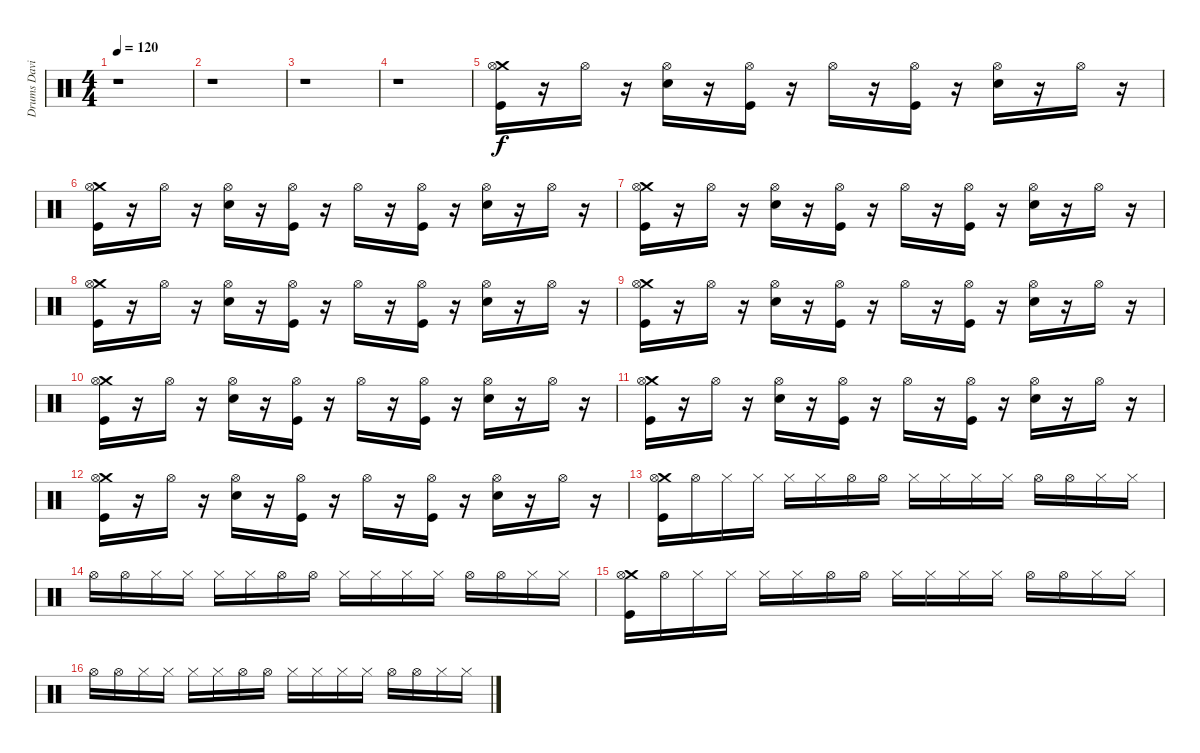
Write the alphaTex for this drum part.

\track ("Drums David" "Drums Davi") {instrument percussion}
\staff {score}
\articulation defaults
\ts (4 4)
\tempo 120
\clef neutral
\ks c
r.1{dy f} |
r.1 |
r.1 |
r.1 |
("Crash medium (hit)" "Hi-Hat (open)" "Kick (hit)").16 r.16 "Hi-Hat (open)".16 r.16 ("Hi-Hat (open)" "Electric Snare (hit)").16 r.16 ("Hi-Hat (open)" "Kick (hit)").16 r.16 "Hi-Hat (open)".16 r.16 ("Hi-Hat (open)" "Kick (hit)").16 r.16 ("Hi-Hat (open)" "Electric Snare (hit)").16 r.16 "Hi-Hat (open)".16 r.16 |
("Crash medium (hit)" "Hi-Hat (open)" "Kick (hit)").16 r.16 "Hi-Hat (open)".16 r.16 ("Hi-Hat (open)" "Electric Snare (hit)").16 r.16 ("Hi-Hat (open)" "Kick (hit)").16 r.16 "Hi-Hat (open)".16 r.16 ("Hi-Hat (open)" "Kick (hit)").16 r.16 ("Hi-Hat (open)" "Electric Snare (hit)").16 r.16 "Hi-Hat (open)".16 r.16 |
("Crash medium (hit)" "Hi-Hat (open)" "Kick (hit)").16 r.16 "Hi-Hat (open)".16 r.16 ("Hi-Hat (open)" "Electric Snare (hit)").16 r.16 ("Hi-Hat (open)" "Kick (hit)").16 r.16 "Hi-Hat (open)".16 r.16 ("Hi-Hat (open)" "Kick (hit)").16 r.16 ("Hi-Hat (open)" "Electric Snare (hit)").16 r.16 "Hi-Hat (open)".16 r.16 |
("Crash medium (hit)" "Hi-Hat (open)" "Kick (hit)").16 r.16 "Hi-Hat (open)".16 r.16 ("Hi-Hat (open)" "Electric Snare (hit)").16 r.16 ("Hi-Hat (open)" "Kick (hit)").16 r.16 "Hi-Hat (open)".16 r.16 ("Hi-Hat (open)" "Kick (hit)").16 r.16 ("Hi-Hat (open)" "Electric Snare (hit)").16 r.16 "Hi-Hat (open)".16 r.16 |
("Crash medium (hit)" "Hi-Hat (open)" "Kick (hit)").16 r.16 "Hi-Hat (open)".16 r.16 ("Hi-Hat (open)" "Electric Snare (hit)").16 r.16 ("Hi-Hat (open)" "Kick (hit)").16 r.16 "Hi-Hat (open)".16 r.16 ("Hi-Hat (open)" "Kick (hit)").16 r.16 ("Hi-Hat (open)" "Electric Snare (hit)").16 r.16 "Hi-Hat (open)".16 r.16 |
("Crash medium (hit)" "Hi-Hat (open)" "Kick (hit)").16 r.16 "Hi-Hat (open)".16 r.16 ("Hi-Hat (open)" "Electric Snare (hit)").16 r.16 ("Hi-Hat (open)" "Kick (hit)").16 r.16 "Hi-Hat (open)".16 r.16 ("Hi-Hat (open)" "Kick (hit)").16 r.16 ("Hi-Hat (open)" "Electric Snare (hit)").16 r.16 "Hi-Hat (open)".16 r.16 |
("Crash medium (hit)" "Hi-Hat (open)" "Kick (hit)").16 r.16 "Hi-Hat (open)".16 r.16 ("Hi-Hat (open)" "Electric Snare (hit)").16 r.16 ("Hi-Hat (open)" "Kick (hit)").16 r.16 "Hi-Hat (open)".16 r.16 ("Hi-Hat (open)" "Kick (hit)").16 r.16 ("Hi-Hat (open)" "Electric Snare (hit)").16 r.16 "Hi-Hat (open)".16 r.16 |
("Crash medium (hit)" "Hi-Hat (open)" "Kick (hit)").16 r.16 "Hi-Hat (open)".16 r.16 ("Hi-Hat (open)" "Electric Snare (hit)").16 r.16 ("Hi-Hat (open)" "Kick (hit)").16 r.16 "Hi-Hat (open)".16 r.16 ("Hi-Hat (open)" "Kick (hit)").16 r.16 ("Hi-Hat (open)" "Electric Snare (hit)").16 r.16 "Hi-Hat (open)".16 r.16 |
("Crash medium (hit)" "Hi-Hat (open)" "Kick (hit)").16 "Hi-Hat (open)".16 "Hi-Hat (closed)".16 "Hi-Hat (closed)".16 "Hi-Hat (closed)".16 "Hi-Hat (closed)".16 "Hi-Hat (open)".16 "Hi-Hat (open)".16 "Hi-Hat (closed)".16 "Hi-Hat (closed)".16 "Hi-Hat (closed)".16 "Hi-Hat (closed)".16 "Hi-Hat (open)".16 "Hi-Hat (open)".16 "Hi-Hat (closed)".16 "Hi-Hat (closed)".16 |
"Hi-Hat (open)".16 "Hi-Hat (open)".16 "Hi-Hat (closed)".16 "Hi-Hat (closed)".16 "Hi-Hat (closed)".16 "Hi-Hat (closed)".16 "Hi-Hat (open)".16 "Hi-Hat (open)".16 "Hi-Hat (closed)".16 "Hi-Hat (closed)".16 "Hi-Hat (closed)".16 "Hi-Hat (closed)".16 "Hi-Hat (open)".16 "Hi-Hat (open)".16 "Hi-Hat (closed)".16 "Hi-Hat (closed)".16 |
("Crash medium (hit)" "Hi-Hat (open)" "Kick (hit)").16 "Hi-Hat (open)".16 "Hi-Hat (closed)".16 "Hi-Hat (closed)".16 "Hi-Hat (closed)".16 "Hi-Hat (closed)".16 "Hi-Hat (open)".16 "Hi-Hat (open)".16 "Hi-Hat (closed)".16 "Hi-Hat (closed)".16 "Hi-Hat (closed)".16 "Hi-Hat (closed)".16 "Hi-Hat (open)".16 "Hi-Hat (open)".16 "Hi-Hat (closed)".16 "Hi-Hat (closed)".16 |
"Hi-Hat (open)".16 "Hi-Hat (open)".16 "Hi-Hat (closed)".16 "Hi-Hat (closed)".16 "Hi-Hat (closed)".16 "Hi-Hat (closed)".16 "Hi-Hat (open)".16 "Hi-Hat (open)".16 "Hi-Hat (closed)".16 "Hi-Hat (closed)".16 "Hi-Hat (closed)".16 "Hi-Hat (closed)".16 "Hi-Hat (open)".16 "Hi-Hat (open)".16 "Hi-Hat (closed)".16 "Hi-Hat (closed)".16
